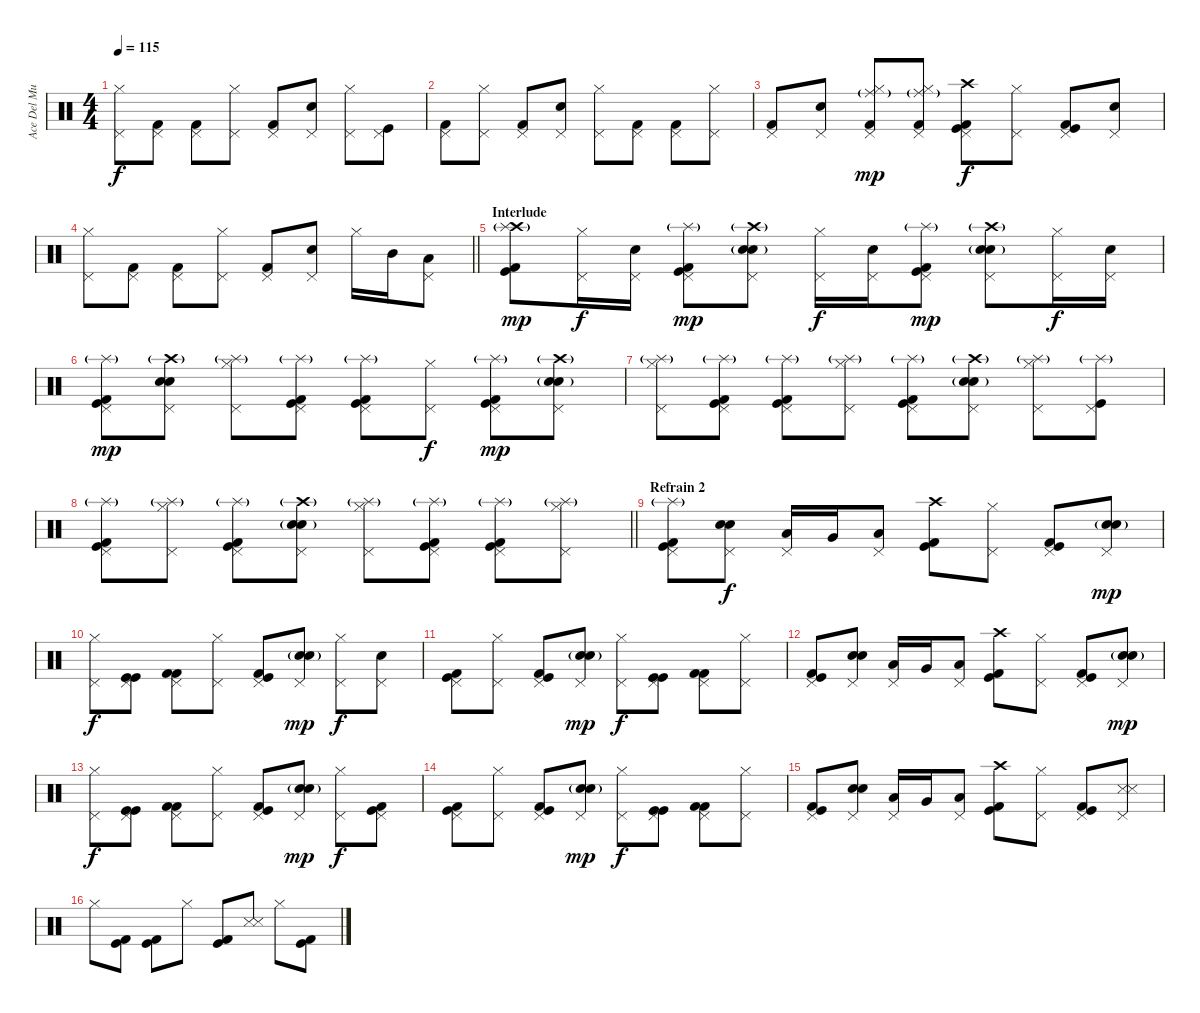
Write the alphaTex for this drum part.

\track ("Ace Del Mundo(Drums)" "Ace Del Mu") {instrument percussion}
\staff {score}
\articulation defaults
\ts (4 4)
\tempo 115
\clef neutral
\ks c
("Pedal Hi-Hat (hit)" "Hi-Hat (closed)").8{dy f} ("Pedal Hi-Hat (hit)" "Kick (hit) 2").8 ("Pedal Hi-Hat (hit)" "Kick (hit) 2").8 ("Pedal Hi-Hat (hit)" "Hi-Hat (closed)").8 ("Pedal Hi-Hat (hit)" "Kick (hit) 2").8 ("Pedal Hi-Hat (hit)" "Electric Snare (hit)").8 ("Pedal Hi-Hat (hit)" "Hi-Hat (closed)").8 ("Pedal Hi-Hat (hit)" "Kick (hit)").8 |
("Pedal Hi-Hat (hit)" "Kick (hit) 2").8 ("Pedal Hi-Hat (hit)" "Hi-Hat (closed)").8 ("Pedal Hi-Hat (hit)" "Kick (hit) 2").8 ("Pedal Hi-Hat (hit)" "Electric Snare (hit)").8 ("Pedal Hi-Hat (hit)" "Hi-Hat (closed)").8 ("Pedal Hi-Hat (hit)" "Kick (hit) 2").8 ("Pedal Hi-Hat (hit)" "Kick (hit) 2").8 ("Pedal Hi-Hat (hit)" "Hi-Hat (closed)").8 |
("Pedal Hi-Hat (hit)" "Kick (hit) 2").8 ("Pedal Hi-Hat (hit)" "Electric Snare (hit)").8 ("Pedal Hi-Hat (hit)" "Hi-Hat (closed)" "Ride (middle)"{g} "Kick (hit) 2").8{dy mp} ("Pedal Hi-Hat (hit)" "Hi-Hat (closed)" "Ride (middle)"{g} "Kick (hit) 2").8 ("Pedal Hi-Hat (hit)" "Crash high (hit)" "Kick (hit) 2" "Kick (hit)").8{dy f} ("Pedal Hi-Hat (hit)" "Hi-Hat (closed)").8 ("Pedal Hi-Hat (hit)" "Kick (hit) 2" "Kick (hit)").8 ("Pedal Hi-Hat (hit)" "Electric Snare (hit)").8 |
\barLineRight lightlight
("Pedal Hi-Hat (hit)" "Hi-Hat (closed)").8 ("Pedal Hi-Hat (hit)" "Kick (hit) 2").8 ("Pedal Hi-Hat (hit)" "Kick (hit) 2").8 ("Pedal Hi-Hat (hit)" "Hi-Hat (closed)").8 ("Pedal Hi-Hat (hit)" "Kick (hit) 2").8 ("Pedal Hi-Hat (hit)" "Electric Snare (hit)").8 "Hi-Hat (closed)".16 "Mid Tom (hit)".16 ("Pedal Hi-Hat (hit)" "Low Tom (hit)").8 |
\section ("" "Interlude")
("Crash high (hit)" "Kick (hit) 2" "Kick (hit)" "Splash (hit)"{g}).8{dy mp} ("Pedal Hi-Hat (hit)" "Hi-Hat (closed)").16{dy f} ("Pedal Hi-Hat (hit)" "Electric Snare (hit)").16 ("Pedal Hi-Hat (hit)" "Kick (hit) 2" "Kick (hit)" "Splash (hit)"{g}).8{dy mp} ("Pedal Hi-Hat (hit)" "Electric Snare (hit)" "Snare (hit) 2"{g} "Crash high (hit)"{g}).8 ("Pedal Hi-Hat (hit)" "Hi-Hat (closed)").16{dy f} ("Pedal Hi-Hat (hit)" "Electric Snare (hit)").16 ("Pedal Hi-Hat (hit)" "Kick (hit) 2" "Kick (hit)" "Splash (hit)"{g}).8{dy mp} ("Pedal Hi-Hat (hit)" "Electric Snare (hit)" "Snare (hit) 2"{g} "Crash high (hit)"{g}).8 ("Pedal Hi-Hat (hit)" "Hi-Hat (closed)").16{dy f} ("Pedal Hi-Hat (hit)" "Electric Snare (hit)").16 |
("Pedal Hi-Hat (hit)" "Kick (hit) 2" "Kick (hit)" "Splash (hit)"{g}).8{dy mp} ("Pedal Hi-Hat (hit)" "Electric Snare (hit)" "Snare (hit) 2" "Crash high (hit)"{g}).8 ("Pedal Hi-Hat (hit)" "Hi-Hat (closed)" "Splash (hit)"{g}).8 ("Pedal Hi-Hat (hit)" "Kick (hit) 2" "Kick (hit)" "Splash (hit)"{g}).8 ("Pedal Hi-Hat (hit)" "Kick (hit) 2" "Kick (hit)" "Splash (hit)"{g}).8 ("Pedal Hi-Hat (hit)" "Hi-Hat (closed)").8{dy f} ("Pedal Hi-Hat (hit)" "Kick (hit) 2" "Kick (hit)" "Splash (hit)"{g}).8{dy mp} ("Pedal Hi-Hat (hit)" "Electric Snare (hit)" "Snare (hit) 2"{g} "Crash high (hit)"{g}).8 |
("Pedal Hi-Hat (hit)" "Hi-Hat (closed)" "Splash (hit)"{g}).8 ("Pedal Hi-Hat (hit)" "Kick (hit) 2" "Kick (hit)" "Splash (hit)"{g}).8 ("Pedal Hi-Hat (hit)" "Kick (hit) 2" "Kick (hit)" "Splash (hit)"{g}).8 ("Pedal Hi-Hat (hit)" "Hi-Hat (closed)" "Splash (hit)"{g}).8 ("Pedal Hi-Hat (hit)" "Kick (hit) 2" "Kick (hit)" "Splash (hit)"{g}).8 ("Pedal Hi-Hat (hit)" "Electric Snare (hit)" "Snare (hit) 2"{g} "Crash high (hit)"{g}).8 ("Pedal Hi-Hat (hit)" "Hi-Hat (closed)" "Splash (hit)"{g}).8 ("Pedal Hi-Hat (hit)" "Kick (hit)" "Splash (hit)"{g}).8 |
\barLineRight lightlight
("Pedal Hi-Hat (hit)" "Kick (hit) 2" "Kick (hit)" "Splash (hit)"{g}).8 ("Pedal Hi-Hat (hit)" "Hi-Hat (closed)" "Splash (hit)"{g}).8 ("Pedal Hi-Hat (hit)" "Kick (hit) 2" "Kick (hit)" "Splash (hit)"{g}).8 ("Pedal Hi-Hat (hit)" "Electric Snare (hit)" "Snare (hit) 2"{g} "Crash high (hit)"{g}).8 ("Pedal Hi-Hat (hit)" "Hi-Hat (closed)" "Splash (hit)"{g}).8 ("Pedal Hi-Hat (hit)" "Kick (hit) 2" "Kick (hit)" "Splash (hit)"{g}).8 ("Pedal Hi-Hat (hit)" "Kick (hit) 2" "Kick (hit)" "Splash (hit)"{g}).8 ("Pedal Hi-Hat (hit)" "Hi-Hat (closed)" "Splash (hit)"{g}).8 |
\section ("" "Refrain 2")
("Pedal Hi-Hat (hit)" "Kick (hit) 2" "Kick (hit)" "Splash (hit)"{g}).8 ("Pedal Hi-Hat (hit)" "Electric Snare (hit)" "Snare (hit) 2").8{dy f} ("Pedal Hi-Hat (hit)" "Low Tom (hit)").16 "Very Low Tom (hit)".16 ("Pedal Hi-Hat (hit)" "Low Tom (hit)").8 ("Crash high (hit)" "Kick (hit) 2" "Kick (hit)").8 ("Pedal Hi-Hat (hit)" "Hi-Hat (closed)").8 ("Pedal Hi-Hat (hit)" "Kick (hit) 2" "Kick (hit)").8 ("Pedal Hi-Hat (hit)" "Electric Snare (hit)" "Snare (hit) 2"{g}).8{dy mp} |
("Pedal Hi-Hat (hit)" "Hi-Hat (closed)").8{dy f} ("Pedal Hi-Hat (hit)" "Kick (hit)" "Kick (hit)").8 ("Pedal Hi-Hat (hit)" "Kick (hit) 2" "Kick (hit) 2").8 ("Pedal Hi-Hat (hit)" "Hi-Hat (closed)").8 ("Pedal Hi-Hat (hit)" "Kick (hit) 2" "Kick (hit)").8 ("Pedal Hi-Hat (hit)" "Electric Snare (hit)" "Snare (hit) 2"{g}).8{dy mp} ("Pedal Hi-Hat (hit)" "Hi-Hat (closed)").8{dy f} ("Pedal Hi-Hat (hit)" "Electric Snare (hit)").8 |
("Pedal Hi-Hat (hit)" "Kick (hit) 2" "Kick (hit)").8 ("Pedal Hi-Hat (hit)" "Hi-Hat (closed)").8 ("Pedal Hi-Hat (hit)" "Kick (hit) 2" "Kick (hit)").8 ("Pedal Hi-Hat (hit)" "Electric Snare (hit)" "Snare (hit) 2"{g}).8{dy mp} ("Pedal Hi-Hat (hit)" "Hi-Hat (closed)").8{dy f} ("Pedal Hi-Hat (hit)" "Kick (hit)" "Kick (hit)").8 ("Pedal Hi-Hat (hit)" "Kick (hit) 2" "Kick (hit) 2").8 ("Pedal Hi-Hat (hit)" "Hi-Hat (closed)").8 |
("Pedal Hi-Hat (hit)" "Kick (hit) 2" "Kick (hit)").8 ("Pedal Hi-Hat (hit)" "Electric Snare (hit)" "Snare (hit) 2").8 ("Pedal Hi-Hat (hit)" "Low Tom (hit)").16 "Very Low Tom (hit)".16 ("Pedal Hi-Hat (hit)" "Low Tom (hit)").8 ("Crash high (hit)" "Kick (hit) 2" "Kick (hit)").8 ("Pedal Hi-Hat (hit)" "Hi-Hat (closed)").8 ("Pedal Hi-Hat (hit)" "Kick (hit) 2" "Kick (hit)").8 ("Pedal Hi-Hat (hit)" "Electric Snare (hit)" "Snare (hit) 2"{g}).8{dy mp} |
("Pedal Hi-Hat (hit)" "Hi-Hat (closed)").8{dy f} ("Pedal Hi-Hat (hit)" "Kick (hit)" "Kick (hit)").8 ("Pedal Hi-Hat (hit)" "Kick (hit) 2" "Kick (hit) 2").8 ("Pedal Hi-Hat (hit)" "Hi-Hat (closed)").8 ("Pedal Hi-Hat (hit)" "Kick (hit) 2" "Kick (hit)").8 ("Pedal Hi-Hat (hit)" "Electric Snare (hit)" "Snare (hit) 2"{g}).8{dy mp} ("Pedal Hi-Hat (hit)" "Hi-Hat (closed)").8{dy f} ("Pedal Hi-Hat (hit)" "Kick (hit) 2" "Kick (hit)").8 |
("Pedal Hi-Hat (hit)" "Kick (hit) 2" "Kick (hit)").8 ("Pedal Hi-Hat (hit)" "Hi-Hat (closed)").8 ("Pedal Hi-Hat (hit)" "Kick (hit) 2" "Kick (hit)").8 ("Pedal Hi-Hat (hit)" "Electric Snare (hit)" "Snare (hit) 2"{g}).8{dy mp} ("Pedal Hi-Hat (hit)" "Hi-Hat (closed)").8{dy f} ("Pedal Hi-Hat (hit)" "Kick (hit)" "Kick (hit)").8 ("Pedal Hi-Hat (hit)" "Kick (hit) 2" "Kick (hit) 2").8 ("Pedal Hi-Hat (hit)" "Hi-Hat (closed)").8 |
("Pedal Hi-Hat (hit)" "Kick (hit) 2" "Kick (hit)").8 ("Pedal Hi-Hat (hit)" "Electric Snare (hit)" "Snare (hit) 2").8 ("Pedal Hi-Hat (hit)" "Low Tom (hit)").16 "Very Low Tom (hit)".16 ("Pedal Hi-Hat (hit)" "Low Tom (hit)").8 ("Crash high (hit)" "Kick (hit) 2" "Kick (hit)").8 ("Pedal Hi-Hat (hit)" "Hi-Hat (closed)").8 ("Pedal Hi-Hat (hit)" "Kick (hit) 2" "Kick (hit)").8 ("Pedal Hi-Hat (hit)" "Snare (side stick) 3" "Snare (side stick) 3").8 |
"Hi-Hat (closed)".8 ("Kick (hit) 2" "Kick (hit)").8 ("Kick (hit) 2" "Kick (hit)").8 "Hi-Hat (closed)".8 ("Kick (hit) 2" "Kick (hit)").8 ("Snare (side stick) 3" "Snare (side stick) 3").8 "Hi-Hat (closed)".8 ("Kick (hit) 2" "Kick (hit)").8
